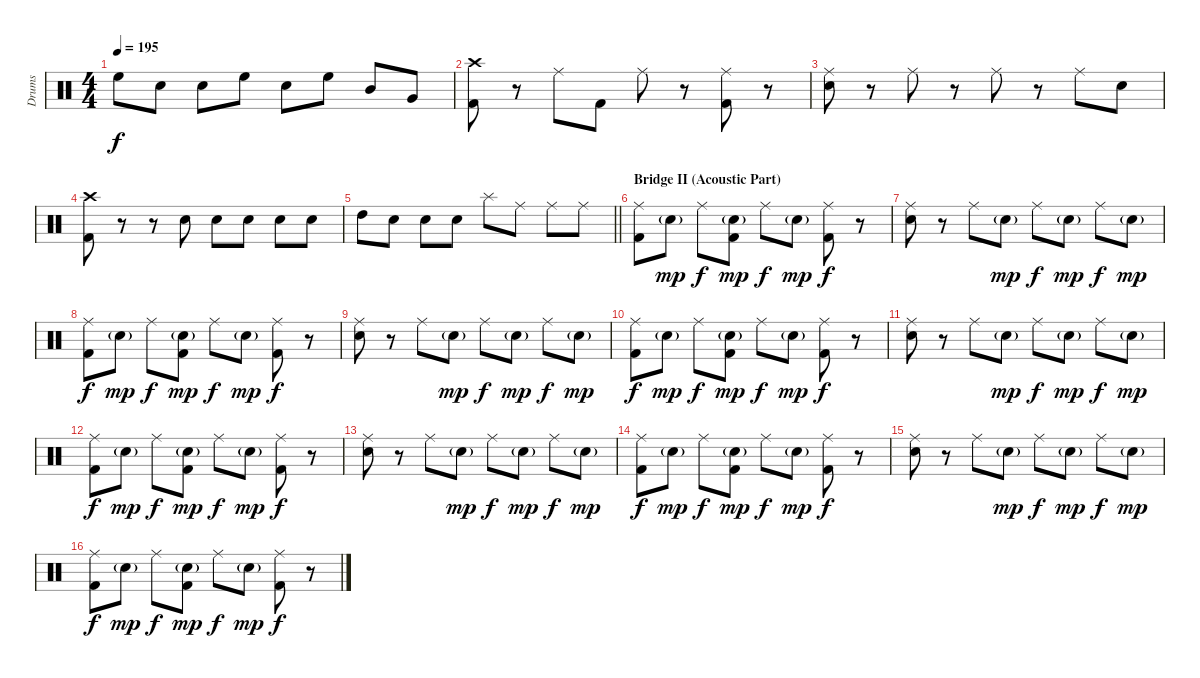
\track ("Drums" "Drums") {instrument percussion}
\staff {score}
\articulation defaults
\ts (4 4)
\tempo 195
\clef neutral
\ks c "High Floor Tom (hit)".8{dy f} "Snare (hit) 2".8 "Snare (hit) 2".8 "High Floor Tom (hit)".8 "Snare (hit) 2".8 "High Floor Tom (hit)".8 "Mid Tom (hit)".8 "Very Low Tom (hit)".8
|
("Crash high (hit)" "Kick (hit) 2").8 r.8 "Ride (middle)".8 "Kick (hit) 2".8 "Ride (middle)".8 r.8 ("Ride (middle)" "Kick (hit) 2").8 r.8 |
("Ride (middle)" "Snare (hit) 2").8 r.8 "Ride (middle)".8 r.8 "Ride (middle)".8 r.8 "Ride (middle)".8 "Snare (hit) 2".8 |
("Crash high (hit)" "Kick (hit) 2").8 r.8 r.8 "Snare (hit) 2".8 "Snare (hit) 2".8 "Snare (hit) 2".8 "Snare (hit) 2".8 "Snare (hit) 2".8 |
\barLineRight lightlight "High Tom (hit)".8 "Snare (hit) 2".8 "Snare (hit) 2".8 "Snare (hit) 2".8 "Splash (hit)".8 "Ride (middle)".8 "Ride (middle)".8 "Ride (middle)".8
|
\section ("" "Bridge II (Acoustic Part)")
("Ride (middle)" "Kick (hit) 2").8 "Snare (hit) 2"{g}.8{dy mp} "Ride (middle)".8{dy f} ("Snare (hit) 2"{g} "Kick (hit) 2").8{dy mp} "Ride (middle)".8{dy f} "Snare (hit) 2"{g}.8{dy mp} ("Ride (middle)" "Kick (hit) 2").8{dy f} r.8 |
("Ride (middle)" "Snare (hit) 2").8 r.8 "Ride (middle)".8 "Snare (hit) 2"{g}.8{dy mp} "Ride (middle)".8{dy f} "Snare (hit) 2"{g}.8{dy mp} "Ride (middle)".8{dy f} "Snare (hit) 2"{g}.8{dy mp} |
("Ride (middle)" "Kick (hit) 2").8{dy f} "Snare (hit) 2"{g}.8{dy mp} "Ride (middle)".8{dy f} ("Snare (hit) 2"{g} "Kick (hit) 2").8{dy mp} "Ride (middle)".8{dy f} "Snare (hit) 2"{g}.8{dy mp} ("Ride (middle)" "Kick (hit) 2").8{dy f} r.8 |
("Ride (middle)" "Snare (hit) 2").8 r.8 "Ride (middle)".8 "Snare (hit) 2"{g}.8{dy mp} "Ride (middle)".8{dy f} "Snare (hit) 2"{g}.8{dy mp} "Ride (middle)".8{dy f} "Snare (hit) 2"{g}.8{dy mp} |
("Ride (middle)" "Kick (hit) 2").8{dy f} "Snare (hit) 2"{g}.8{dy mp} "Ride (middle)".8{dy f} ("Snare (hit) 2"{g} "Kick (hit) 2").8{dy mp} "Ride (middle)".8{dy f} "Snare (hit) 2"{g}.8{dy mp} ("Ride (middle)" "Kick (hit) 2").8{dy f} r.8 |
("Ride (middle)" "Snare (hit) 2").8 r.8 "Ride (middle)".8 "Snare (hit) 2"{g}.8{dy mp} "Ride (middle)".8{dy f} "Snare (hit) 2"{g}.8{dy mp} "Ride (middle)".8{dy f} "Snare (hit) 2"{g}.8{dy mp} |
("Ride (middle)" "Kick (hit) 2").8{dy f} "Snare (hit) 2"{g}.8{dy mp} "Ride (middle)".8{dy f} ("Snare (hit) 2"{g} "Kick (hit) 2").8{dy mp} "Ride (middle)".8{dy f} "Snare (hit) 2"{g}.8{dy mp} ("Ride (middle)" "Kick (hit) 2").8{dy f} r.8 |
("Ride (middle)" "Snare (hit) 2").8 r.8 "Ride (middle)".8 "Snare (hit) 2"{g}.8{dy mp} "Ride (middle)".8{dy f} "Snare (hit) 2"{g}.8{dy mp} "Ride (middle)".8{dy f} "Snare (hit) 2"{g}.8{dy mp} |
("Ride (middle)" "Kick (hit) 2").8{dy f} "Snare (hit) 2"{g}.8{dy mp} "Ride (middle)".8{dy f} ("Snare (hit) 2"{g} "Kick (hit) 2").8{dy mp} "Ride (middle)".8{dy f} "Snare (hit) 2"{g}.8{dy mp} ("Ride (middle)" "Kick (hit) 2").8{dy f} r.8 |
("Ride (middle)" "Snare (hit) 2").8 r.8 "Ride (middle)".8 "Snare (hit) 2"{g}.8{dy mp} "Ride (middle)".8{dy f} "Snare (hit) 2"{g}.8{dy mp} "Ride (middle)".8{dy f} "Snare (hit) 2"{g}.8{dy mp} |
("Ride (middle)" "Kick (hit) 2").8{dy f} "Snare (hit) 2"{g}.8{dy mp} "Ride (middle)".8{dy f} ("Snare (hit) 2"{g} "Kick (hit) 2").8{dy mp} "Ride (middle)".8{dy f} "Snare (hit) 2"{g}.8{dy mp} ("Ride (middle)" "Kick (hit) 2").8{dy f} r.8
